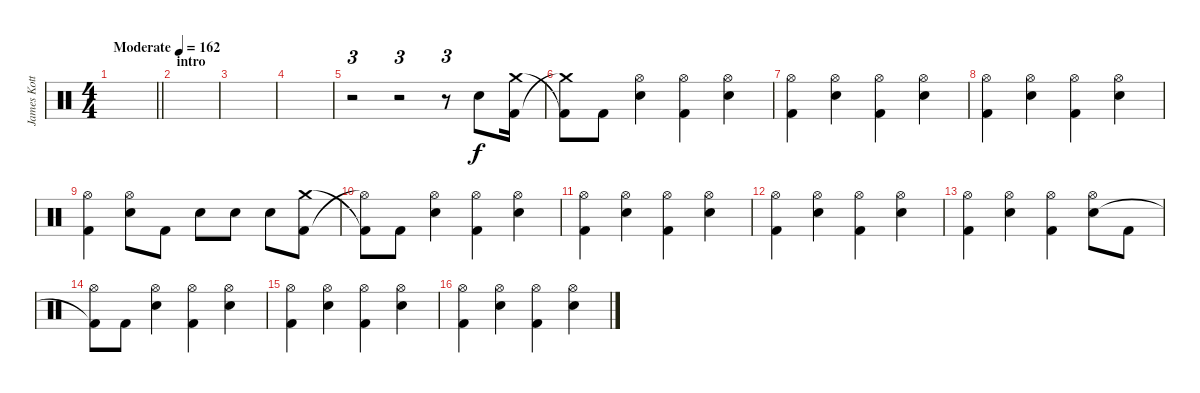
\track ("James Kottak" "James Kott") {instrument percussion}
\staff {score}
\articulation defaults
\ts (4 4)
\tempo (162 "Moderate")
\clef neutral
\barLineRight lightlight
\ks c
|
\section ("" "intro")
|
|
|
r.2{tu (3 2)} r.2{tu (3 2)} r.8{tu (3 2)} "Snare (hit) 2".8 ("Crash medium (hit)" "Kick (hit) 2").16 |
("Kick (hit) 2"{t} "Crash medium (hit)"{t}).8 "Kick (hit) 2".8 ("Hi-Hat (open)" "Snare (hit) 2").4 ("Hi-Hat (open)" "Kick (hit) 2").4 ("Snare (hit) 2" "Hi-Hat (open)").4 |
("Hi-Hat (open)" "Kick (hit) 2").4 ("Hi-Hat (open)" "Snare (hit) 2").4 ("Hi-Hat (open)" "Kick (hit) 2").4 ("Hi-Hat (open)" "Snare (hit) 2").4 |
("Hi-Hat (open)" "Kick (hit) 2").4 ("Hi-Hat (open)" "Snare (hit) 2").4 ("Hi-Hat (open)" "Kick (hit) 2").4 ("Hi-Hat (open)" "Snare (hit) 2").4 |
("Hi-Hat (open)" "Kick (hit) 2").4 ("Hi-Hat (open)" "Snare (hit) 2").8 "Kick (hit) 2".8 "Snare (hit) 2".8 "Snare (hit) 2".8 "Snare (hit) 2".8 ("Kick (hit) 2" "Crash medium (hit)").8 |
("Hi-Hat (open)"{t} "Kick (hit) 2"{t}).8 "Kick (hit) 2".8 ("Hi-Hat (open)" "Snare (hit) 2").4 ("Hi-Hat (open)" "Kick (hit) 2").4 ("Hi-Hat (open)" "Snare (hit) 2").4 |
("Hi-Hat (open)" "Kick (hit) 2").4 ("Hi-Hat (open)" "Snare (hit) 2").4 ("Hi-Hat (open)" "Kick (hit) 2").4 ("Hi-Hat (open)" "Snare (hit) 2").4 |
("Hi-Hat (open)" "Kick (hit) 2").4 ("Hi-Hat (open)" "Snare (hit) 2").4 ("Hi-Hat (open)" "Kick (hit) 2").4 ("Hi-Hat (open)" "Snare (hit) 2").4 |
("Hi-Hat (open)" "Kick (hit) 2").4 ("Hi-Hat (open)" "Snare (hit) 2").4 ("Hi-Hat (open)" "Kick (hit) 2").4 ("Hi-Hat (open)" "Snare (hit) 2").8 "Kick (hit) 2".8 |
("Hi-Hat (open)" "Kick (hit) 2"{t}).8 "Kick (hit) 2".8 ("Hi-Hat (open)" "Snare (hit) 2").4 ("Hi-Hat (open)" "Kick (hit) 2").4 ("Hi-Hat (open)" "Snare (hit) 2").4 |
("Hi-Hat (open)" "Kick (hit) 2").4 ("Hi-Hat (open)" "Snare (hit) 2").4 ("Hi-Hat (open)" "Kick (hit) 2").4 ("Hi-Hat (open)" "Snare (hit) 2").4 |
("Hi-Hat (open)" "Kick (hit) 2").4 ("Hi-Hat (open)" "Snare (hit) 2").4 ("Hi-Hat (open)" "Kick (hit) 2").4 ("Hi-Hat (open)" "Snare (hit) 2").4
